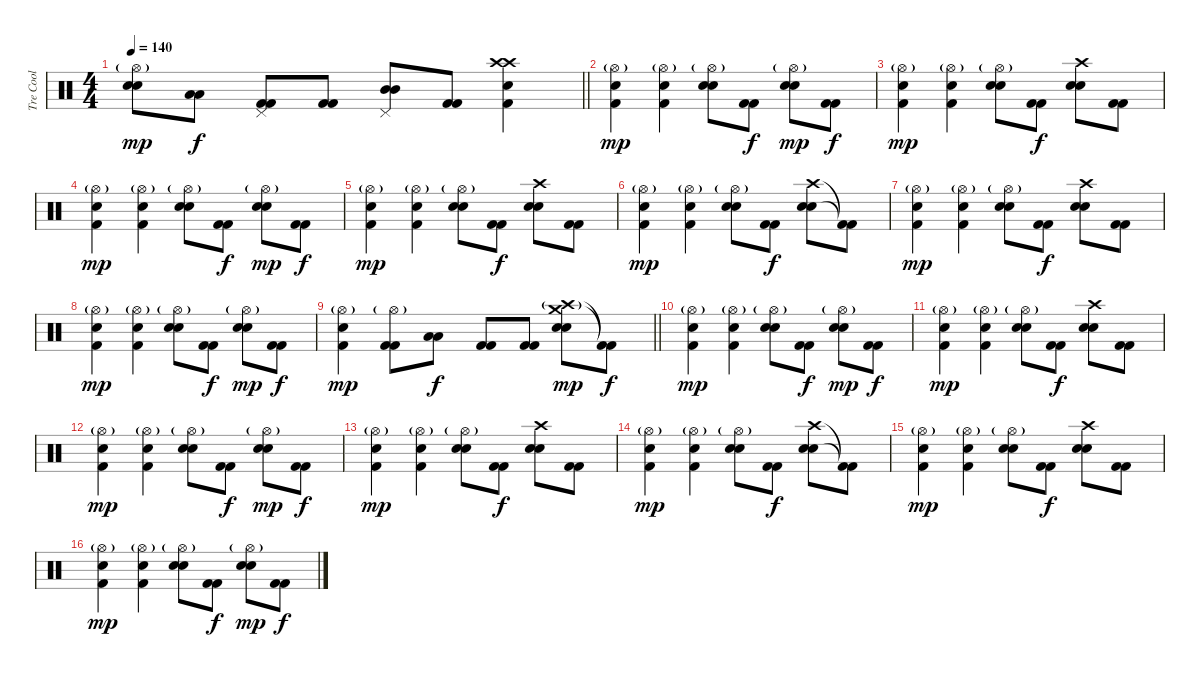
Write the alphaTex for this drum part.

\track ("Tre Cool" "Tre Cool") {instrument percussion}
\staff {score}
\articulation defaults
\ts (4 4)
\tempo 140
\clef neutral
\barLineRight lightlight
\ks c
("Hi-Hat (open)"{g} "Electric Snare (hit)" "Electric Snare (hit)").8{dy mp} ("Low Tom (hit)" "Low Tom (hit)").8{dy f} ("Pedal Hi-Hat (hit)" "Kick (hit) 2" "Kick (hit) 2").8 ("Kick (hit) 2" "Kick (hit) 2").8 ("Pedal Hi-Hat (hit)" "Mid Tom (hit)" "Mid Tom (hit)").8 ("Kick (hit) 2" "Kick (hit) 2").8 ("Crash high (hit)" "Crash high (hit)" "Electric Snare (hit)" "Kick (hit) 2").4 |
("Hi-Hat (open)"{g} "Electric Snare (hit)" "Kick (hit) 2").4{dy mp} ("Hi-Hat (open)"{g} "Electric Snare (hit)" "Kick (hit) 2").4 ("Hi-Hat (open)"{g} "Electric Snare (hit)" "Electric Snare (hit)").8 ("Kick (hit) 2" "Kick (hit) 2").8{dy f} ("Hi-Hat (open)"{g} "Electric Snare (hit)" "Electric Snare (hit)").8{dy mp} ("Kick (hit) 2" "Kick (hit) 2").8{dy f} |
("Hi-Hat (open)"{g} "Electric Snare (hit)" "Kick (hit) 2").4{dy mp} ("Hi-Hat (open)"{g} "Electric Snare (hit)" "Kick (hit) 2").4 ("Hi-Hat (open)"{g} "Electric Snare (hit)" "Electric Snare (hit)").8 ("Kick (hit) 2" "Kick (hit) 2").8{dy f} ("Crash high (hit)" "Electric Snare (hit)" "Electric Snare (hit)").8 ("Kick (hit) 2" "Kick (hit) 2").8 |
("Hi-Hat (open)"{g} "Electric Snare (hit)" "Kick (hit) 2").4{dy mp} ("Hi-Hat (open)"{g} "Electric Snare (hit)" "Kick (hit) 2").4 ("Hi-Hat (open)"{g} "Electric Snare (hit)" "Electric Snare (hit)").8 ("Kick (hit) 2" "Kick (hit) 2").8{dy f} ("Hi-Hat (open)"{g} "Electric Snare (hit)" "Electric Snare (hit)").8{dy mp} ("Kick (hit) 2" "Kick (hit) 2").8{dy f} |
("Hi-Hat (open)"{g} "Electric Snare (hit)" "Kick (hit) 2").4{dy mp} ("Hi-Hat (open)"{g} "Electric Snare (hit)" "Kick (hit) 2").4 ("Hi-Hat (open)"{g} "Electric Snare (hit)" "Electric Snare (hit)").8 ("Kick (hit) 2" "Kick (hit) 2").8{dy f} ("Crash high (hit)" "Electric Snare (hit)" "Electric Snare (hit)").8 ("Kick (hit) 2" "Kick (hit) 2").8 |
("Hi-Hat (open)"{g} "Electric Snare (hit)" "Kick (hit) 2").4{dy mp} ("Hi-Hat (open)"{g} "Electric Snare (hit)" "Kick (hit) 2").4 ("Hi-Hat (open)"{g} "Electric Snare (hit)" "Electric Snare (hit)").8 ("Kick (hit) 2" "Kick (hit) 2").8{dy f} ("Crash high (hit)" "Electric Snare (hit)" "Electric Snare (hit)").8 ("Kick (hit) 2"{t} "Kick (hit) 2"{t}).8 |
("Hi-Hat (open)"{g} "Electric Snare (hit)" "Kick (hit) 2").4{dy mp} ("Hi-Hat (open)"{g} "Electric Snare (hit)" "Kick (hit) 2").4 ("Hi-Hat (open)"{g} "Electric Snare (hit)" "Electric Snare (hit)").8 ("Kick (hit) 2" "Kick (hit) 2").8{dy f} ("Crash high (hit)" "Electric Snare (hit)" "Electric Snare (hit)").8 ("Kick (hit) 2" "Kick (hit) 2").8 |
("Hi-Hat (open)"{g} "Electric Snare (hit)" "Kick (hit) 2").4{dy mp} ("Hi-Hat (open)"{g} "Electric Snare (hit)" "Kick (hit) 2").4 ("Hi-Hat (open)"{g} "Electric Snare (hit)" "Electric Snare (hit)").8 ("Kick (hit) 2" "Kick (hit) 2").8{dy f} ("Hi-Hat (open)"{g} "Electric Snare (hit)" "Electric Snare (hit)").8{dy mp} ("Kick (hit) 2" "Kick (hit) 2").8{dy f} |
\barLineRight lightlight
("Hi-Hat (open)"{g} "Electric Snare (hit)" "Kick (hit) 2").4{dy mp} ("Hi-Hat (open)"{g} "Kick (hit) 2" "Kick (hit) 2").8 ("Low Tom (hit)" "Low Tom (hit)").8{dy f} ("Kick (hit) 2" "Kick (hit) 2").8 ("Kick (hit) 2" "Kick (hit) 2").8 ("Crash high (hit)"{g} "Crash medium (hit)" "Electric Snare (hit)" "Electric Snare (hit)").8{dy mp} ("Kick (hit) 2"{t} "Kick (hit) 2"{t}).8{dy f} |
("Hi-Hat (open)"{g} "Electric Snare (hit)" "Kick (hit) 2").4{dy mp} ("Hi-Hat (open)"{g} "Electric Snare (hit)" "Kick (hit) 2").4 ("Hi-Hat (open)"{g} "Electric Snare (hit)" "Electric Snare (hit)").8 ("Kick (hit) 2" "Kick (hit) 2").8{dy f} ("Hi-Hat (open)"{g} "Electric Snare (hit)" "Electric Snare (hit)").8{dy mp} ("Kick (hit) 2" "Kick (hit) 2").8{dy f} |
("Hi-Hat (open)"{g} "Electric Snare (hit)" "Kick (hit) 2").4{dy mp} ("Hi-Hat (open)"{g} "Electric Snare (hit)" "Kick (hit) 2").4 ("Hi-Hat (open)"{g} "Electric Snare (hit)" "Electric Snare (hit)").8 ("Kick (hit) 2" "Kick (hit) 2").8{dy f} ("Crash high (hit)" "Electric Snare (hit)" "Electric Snare (hit)").8 ("Kick (hit) 2" "Kick (hit) 2").8 |
("Hi-Hat (open)"{g} "Electric Snare (hit)" "Kick (hit) 2").4{dy mp} ("Hi-Hat (open)"{g} "Electric Snare (hit)" "Kick (hit) 2").4 ("Hi-Hat (open)"{g} "Electric Snare (hit)" "Electric Snare (hit)").8 ("Kick (hit) 2" "Kick (hit) 2").8{dy f} ("Hi-Hat (open)"{g} "Electric Snare (hit)" "Electric Snare (hit)").8{dy mp} ("Kick (hit) 2" "Kick (hit) 2").8{dy f} |
("Hi-Hat (open)"{g} "Electric Snare (hit)" "Kick (hit) 2").4{dy mp} ("Hi-Hat (open)"{g} "Electric Snare (hit)" "Kick (hit) 2").4 ("Hi-Hat (open)"{g} "Electric Snare (hit)" "Electric Snare (hit)").8 ("Kick (hit) 2" "Kick (hit) 2").8{dy f} ("Crash high (hit)" "Electric Snare (hit)" "Electric Snare (hit)").8 ("Kick (hit) 2" "Kick (hit) 2").8 |
("Hi-Hat (open)"{g} "Electric Snare (hit)" "Kick (hit) 2").4{dy mp} ("Hi-Hat (open)"{g} "Electric Snare (hit)" "Kick (hit) 2").4 ("Hi-Hat (open)"{g} "Electric Snare (hit)" "Electric Snare (hit)").8 ("Kick (hit) 2" "Kick (hit) 2").8{dy f} ("Crash high (hit)" "Electric Snare (hit)" "Electric Snare (hit)").8 ("Kick (hit) 2"{t} "Kick (hit) 2"{t}).8 |
("Hi-Hat (open)"{g} "Electric Snare (hit)" "Kick (hit) 2").4{dy mp} ("Hi-Hat (open)"{g} "Electric Snare (hit)" "Kick (hit) 2").4 ("Hi-Hat (open)"{g} "Electric Snare (hit)" "Electric Snare (hit)").8 ("Kick (hit) 2" "Kick (hit) 2").8{dy f} ("Crash high (hit)" "Electric Snare (hit)" "Electric Snare (hit)").8 ("Kick (hit) 2" "Kick (hit) 2").8 |
("Hi-Hat (open)"{g} "Electric Snare (hit)" "Kick (hit) 2").4{dy mp} ("Hi-Hat (open)"{g} "Electric Snare (hit)" "Kick (hit) 2").4 ("Hi-Hat (open)"{g} "Electric Snare (hit)" "Electric Snare (hit)").8 ("Kick (hit) 2" "Kick (hit) 2").8{dy f} ("Hi-Hat (open)"{g} "Electric Snare (hit)" "Electric Snare (hit)").8{dy mp} ("Kick (hit) 2" "Kick (hit) 2").8{dy f}
